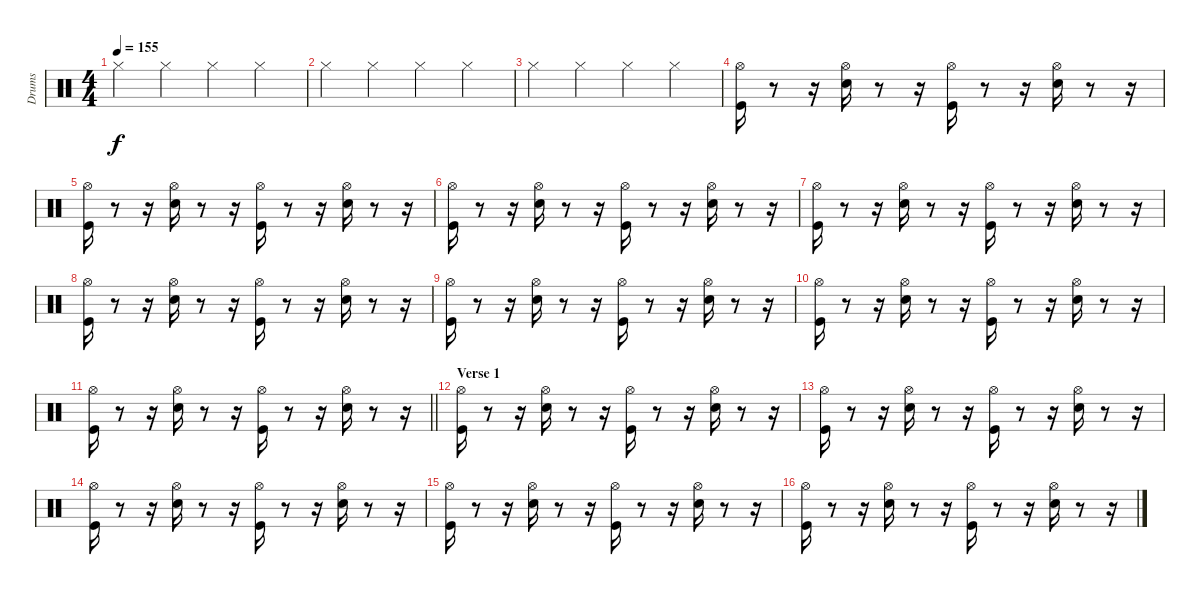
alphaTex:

\track ("Drums" "Drums") {instrument percussion}
\staff {score}
\articulation defaults
\ts (4 4)
\tempo 155
\clef neutral
\ks c "Hi-Hat (closed)".4{dy f} "Hi-Hat (closed)".4 "Hi-Hat (closed)".4 "Hi-Hat (closed)".4
|
"Hi-Hat (closed)".4 "Hi-Hat (closed)".4 "Hi-Hat (closed)".4 "Hi-Hat (closed)".4 |
"Hi-Hat (closed)".4 "Hi-Hat (closed)".4 "Hi-Hat (closed)".4 "Hi-Hat (closed)".4 |
("Hi-Hat (open)" "Kick (hit)").16 r.8 r.16 ("Hi-Hat (open)" "Snare (hit) 2").16 r.8 r.16 ("Kick (hit)" "Hi-Hat (open)").16 r.8 r.16 ("Snare (hit) 2" "Hi-Hat (open)").16 r.8 r.16 |
("Hi-Hat (open)" "Kick (hit)").16 r.8 r.16 ("Hi-Hat (open)" "Snare (hit) 2").16 r.8 r.16 ("Kick (hit)" "Hi-Hat (open)").16 r.8 r.16 ("Snare (hit) 2" "Hi-Hat (open)").16 r.8 r.16 |
("Hi-Hat (open)" "Kick (hit)").16 r.8 r.16 ("Hi-Hat (open)" "Snare (hit) 2").16 r.8 r.16 ("Kick (hit)" "Hi-Hat (open)").16 r.8 r.16 ("Snare (hit) 2" "Hi-Hat (open)").16 r.8 r.16 |
("Hi-Hat (open)" "Kick (hit)").16 r.8 r.16 ("Hi-Hat (open)" "Snare (hit) 2").16 r.8 r.16 ("Kick (hit)" "Hi-Hat (open)").16 r.8 r.16 ("Snare (hit) 2" "Hi-Hat (open)").16 r.8 r.16 |
("Hi-Hat (open)" "Kick (hit)").16 r.8 r.16 ("Hi-Hat (open)" "Snare (hit) 2").16 r.8 r.16 ("Kick (hit)" "Hi-Hat (open)").16 r.8 r.16 ("Snare (hit) 2" "Hi-Hat (open)").16 r.8 r.16 |
("Hi-Hat (open)" "Kick (hit)").16 r.8 r.16 ("Hi-Hat (open)" "Snare (hit) 2").16 r.8 r.16 ("Kick (hit)" "Hi-Hat (open)").16 r.8 r.16 ("Snare (hit) 2" "Hi-Hat (open)").16 r.8 r.16 |
("Hi-Hat (open)" "Kick (hit)").16 r.8 r.16 ("Hi-Hat (open)" "Snare (hit) 2").16 r.8 r.16 ("Kick (hit)" "Hi-Hat (open)").16 r.8 r.16 ("Snare (hit) 2" "Hi-Hat (open)").16 r.8 r.16 |
\barLineRight lightlight
("Hi-Hat (open)" "Kick (hit)").16 r.8 r.16 ("Hi-Hat (open)" "Snare (hit) 2").16 r.8 r.16 ("Kick (hit)" "Hi-Hat (open)").16 r.8 r.16 ("Snare (hit) 2" "Hi-Hat (open)").16 r.8 r.16 |
\section ("" "Verse 1")
("Hi-Hat (open)" "Kick (hit)").16 r.8 r.16 ("Hi-Hat (open)" "Snare (hit) 2").16 r.8 r.16 ("Kick (hit)" "Hi-Hat (open)").16 r.8 r.16 ("Snare (hit) 2" "Hi-Hat (open)").16 r.8 r.16 |
("Hi-Hat (open)" "Kick (hit)").16 r.8 r.16 ("Hi-Hat (open)" "Snare (hit) 2").16 r.8 r.16 ("Kick (hit)" "Hi-Hat (open)").16 r.8 r.16 ("Snare (hit) 2" "Hi-Hat (open)").16 r.8 r.16 |
("Hi-Hat (open)" "Kick (hit)").16 r.8 r.16 ("Hi-Hat (open)" "Snare (hit) 2").16 r.8 r.16 ("Kick (hit)" "Hi-Hat (open)").16 r.8 r.16 ("Snare (hit) 2" "Hi-Hat (open)").16 r.8 r.16 |
("Hi-Hat (open)" "Kick (hit)").16 r.8 r.16 ("Hi-Hat (open)" "Snare (hit) 2").16 r.8 r.16 ("Kick (hit)" "Hi-Hat (open)").16 r.8 r.16 ("Snare (hit) 2" "Hi-Hat (open)").16 r.8 r.16 |
("Hi-Hat (open)" "Kick (hit)").16 r.8 r.16 ("Hi-Hat (open)" "Snare (hit) 2").16 r.8 r.16 ("Kick (hit)" "Hi-Hat (open)").16 r.8 r.16 ("Snare (hit) 2" "Hi-Hat (open)").16 r.8 r.16
